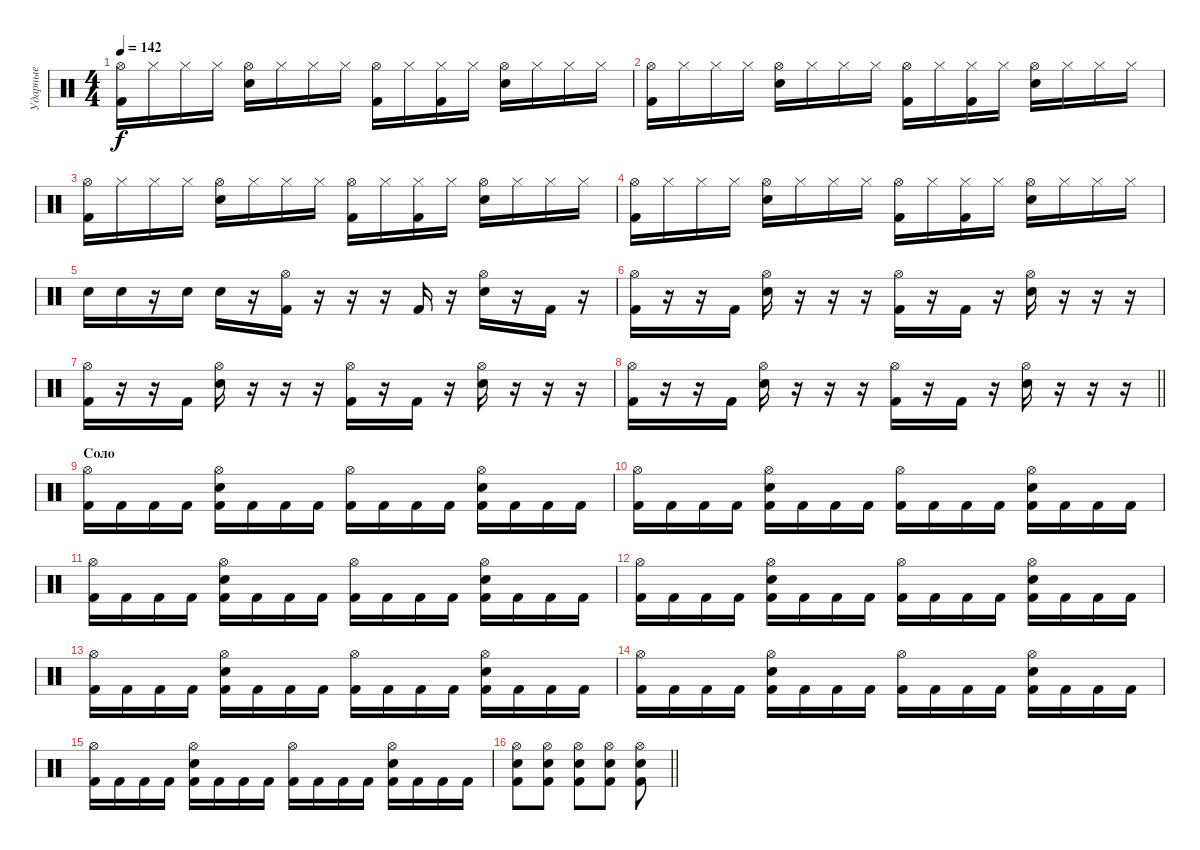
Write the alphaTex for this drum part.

\track ("Ударные" "Ударные") {instrument percussion}
\staff {score}
\articulation defaults
\ts (4 4)
\tempo 142
\clef neutral
\ks c
("Hi-Hat (open)" "Kick (hit) 2").16{dy f} "Hi-Hat (closed)".16 "Hi-Hat (closed)".16 "Hi-Hat (closed)".16 ("Hi-Hat (open)" "Electric Snare (hit)").16 "Hi-Hat (closed)".16 "Hi-Hat (closed)".16 "Hi-Hat (closed)".16 ("Hi-Hat (open)" "Kick (hit) 2").16 "Hi-Hat (closed)".16 ("Hi-Hat (closed)" "Kick (hit) 2").16 "Hi-Hat (closed)".16 ("Hi-Hat (open)" "Electric Snare (hit)").16 "Hi-Hat (closed)".16 "Hi-Hat (closed)".16 "Hi-Hat (closed)".16 |
("Hi-Hat (open)" "Kick (hit) 2").16 "Hi-Hat (closed)".16 "Hi-Hat (closed)".16 "Hi-Hat (closed)".16 ("Hi-Hat (open)" "Electric Snare (hit)").16 "Hi-Hat (closed)".16 "Hi-Hat (closed)".16 "Hi-Hat (closed)".16 ("Hi-Hat (open)" "Kick (hit) 2").16 "Hi-Hat (closed)".16 ("Hi-Hat (closed)" "Kick (hit) 2").16 "Hi-Hat (closed)".16 ("Hi-Hat (open)" "Electric Snare (hit)").16 "Hi-Hat (closed)".16 "Hi-Hat (closed)".16 "Hi-Hat (closed)".16 |
("Hi-Hat (open)" "Kick (hit) 2").16 "Hi-Hat (closed)".16 "Hi-Hat (closed)".16 "Hi-Hat (closed)".16 ("Hi-Hat (open)" "Electric Snare (hit)").16 "Hi-Hat (closed)".16 "Hi-Hat (closed)".16 "Hi-Hat (closed)".16 ("Hi-Hat (open)" "Kick (hit) 2").16 "Hi-Hat (closed)".16 ("Hi-Hat (closed)" "Kick (hit) 2").16 "Hi-Hat (closed)".16 ("Hi-Hat (open)" "Electric Snare (hit)").16 "Hi-Hat (closed)".16 "Hi-Hat (closed)".16 "Hi-Hat (closed)".16 |
("Hi-Hat (open)" "Kick (hit) 2").16 "Hi-Hat (closed)".16 "Hi-Hat (closed)".16 "Hi-Hat (closed)".16 ("Hi-Hat (open)" "Electric Snare (hit)").16 "Hi-Hat (closed)".16 "Hi-Hat (closed)".16 "Hi-Hat (closed)".16 ("Hi-Hat (open)" "Kick (hit) 2").16 "Hi-Hat (closed)".16 ("Hi-Hat (closed)" "Kick (hit) 2").16 "Hi-Hat (closed)".16 ("Hi-Hat (open)" "Electric Snare (hit)").16 "Hi-Hat (closed)".16 "Hi-Hat (closed)".16 "Hi-Hat (closed)".16 |
"Electric Snare (hit)".16 "Electric Snare (hit)".16 r.16 "Electric Snare (hit)".16 "Electric Snare (hit)".16 r.16 ("Hi-Hat (open)" "Kick (hit) 2").16 r.16 r.16 r.16 "Kick (hit) 2".16 r.16 ("Hi-Hat (open)" "Electric Snare (hit)").16 r.16 "Kick (hit) 2".16 r.16 |
("Hi-Hat (open)" "Kick (hit) 2").16 r.16 r.16 "Kick (hit) 2".16 ("Hi-Hat (open)" "Electric Snare (hit)").16 r.16 r.16 r.16 ("Hi-Hat (open)" "Kick (hit) 2").16 r.16 "Kick (hit) 2".16 r.16 ("Hi-Hat (open)" "Electric Snare (hit)").16 r.16 r.16 r.16 |
("Hi-Hat (open)" "Kick (hit) 2").16 r.16 r.16 "Kick (hit) 2".16 ("Hi-Hat (open)" "Electric Snare (hit)").16 r.16 r.16 r.16 ("Hi-Hat (open)" "Kick (hit) 2").16 r.16 "Kick (hit) 2".16 r.16 ("Hi-Hat (open)" "Electric Snare (hit)").16 r.16 r.16 r.16 |
\barLineRight lightlight
("Hi-Hat (open)" "Kick (hit) 2").16 r.16 r.16 "Kick (hit) 2".16 ("Hi-Hat (open)" "Electric Snare (hit)").16 r.16 r.16 r.16 ("Hi-Hat (open)" "Kick (hit) 2").16 r.16 "Kick (hit) 2".16 r.16 ("Hi-Hat (open)" "Electric Snare (hit)").16 r.16 r.16 r.16 |
\section ("" "Соло")
("Hi-Hat (open)" "Kick (hit) 2").16 "Kick (hit) 2".16 "Kick (hit) 2".16 "Kick (hit) 2".16 ("Hi-Hat (open)" "Electric Snare (hit)" "Kick (hit) 2").16 "Kick (hit) 2".16 "Kick (hit) 2".16 "Kick (hit) 2".16 ("Hi-Hat (open)" "Kick (hit) 2").16 "Kick (hit) 2".16 "Kick (hit) 2".16 "Kick (hit) 2".16 ("Hi-Hat (open)" "Electric Snare (hit)" "Kick (hit) 2").16 "Kick (hit) 2".16 "Kick (hit) 2".16 "Kick (hit) 2".16 |
("Hi-Hat (open)" "Kick (hit) 2").16 "Kick (hit) 2".16 "Kick (hit) 2".16 "Kick (hit) 2".16 ("Hi-Hat (open)" "Electric Snare (hit)" "Kick (hit) 2").16 "Kick (hit) 2".16 "Kick (hit) 2".16 "Kick (hit) 2".16 ("Hi-Hat (open)" "Kick (hit) 2").16 "Kick (hit) 2".16 "Kick (hit) 2".16 "Kick (hit) 2".16 ("Hi-Hat (open)" "Electric Snare (hit)" "Kick (hit) 2").16 "Kick (hit) 2".16 "Kick (hit) 2".16 "Kick (hit) 2".16 |
("Hi-Hat (open)" "Kick (hit) 2").16 "Kick (hit) 2".16 "Kick (hit) 2".16 "Kick (hit) 2".16 ("Hi-Hat (open)" "Electric Snare (hit)" "Kick (hit) 2").16 "Kick (hit) 2".16 "Kick (hit) 2".16 "Kick (hit) 2".16 ("Hi-Hat (open)" "Kick (hit) 2").16 "Kick (hit) 2".16 "Kick (hit) 2".16 "Kick (hit) 2".16 ("Hi-Hat (open)" "Electric Snare (hit)" "Kick (hit) 2").16 "Kick (hit) 2".16 "Kick (hit) 2".16 "Kick (hit) 2".16 |
("Hi-Hat (open)" "Kick (hit) 2").16 "Kick (hit) 2".16 "Kick (hit) 2".16 "Kick (hit) 2".16 ("Hi-Hat (open)" "Electric Snare (hit)" "Kick (hit) 2").16 "Kick (hit) 2".16 "Kick (hit) 2".16 "Kick (hit) 2".16 ("Hi-Hat (open)" "Kick (hit) 2").16 "Kick (hit) 2".16 "Kick (hit) 2".16 "Kick (hit) 2".16 ("Hi-Hat (open)" "Electric Snare (hit)" "Kick (hit) 2").16 "Kick (hit) 2".16 "Kick (hit) 2".16 "Kick (hit) 2".16 |
("Hi-Hat (open)" "Kick (hit) 2").16 "Kick (hit) 2".16 "Kick (hit) 2".16 "Kick (hit) 2".16 ("Hi-Hat (open)" "Electric Snare (hit)" "Kick (hit) 2").16 "Kick (hit) 2".16 "Kick (hit) 2".16 "Kick (hit) 2".16 ("Hi-Hat (open)" "Kick (hit) 2").16 "Kick (hit) 2".16 "Kick (hit) 2".16 "Kick (hit) 2".16 ("Hi-Hat (open)" "Electric Snare (hit)" "Kick (hit) 2").16 "Kick (hit) 2".16 "Kick (hit) 2".16 "Kick (hit) 2".16 |
("Hi-Hat (open)" "Kick (hit) 2").16 "Kick (hit) 2".16 "Kick (hit) 2".16 "Kick (hit) 2".16 ("Hi-Hat (open)" "Electric Snare (hit)" "Kick (hit) 2").16 "Kick (hit) 2".16 "Kick (hit) 2".16 "Kick (hit) 2".16 ("Hi-Hat (open)" "Kick (hit) 2").16 "Kick (hit) 2".16 "Kick (hit) 2".16 "Kick (hit) 2".16 ("Hi-Hat (open)" "Electric Snare (hit)" "Kick (hit) 2").16 "Kick (hit) 2".16 "Kick (hit) 2".16 "Kick (hit) 2".16 |
("Hi-Hat (open)" "Kick (hit) 2").16 "Kick (hit) 2".16 "Kick (hit) 2".16 "Kick (hit) 2".16 ("Hi-Hat (open)" "Electric Snare (hit)" "Kick (hit) 2").16 "Kick (hit) 2".16 "Kick (hit) 2".16 "Kick (hit) 2".16 ("Hi-Hat (open)" "Kick (hit) 2").16 "Kick (hit) 2".16 "Kick (hit) 2".16 "Kick (hit) 2".16 ("Hi-Hat (open)" "Electric Snare (hit)" "Kick (hit) 2").16 "Kick (hit) 2".16 "Kick (hit) 2".16 "Kick (hit) 2".16 |
\barLineRight lightlight
("Hi-Hat (open)" "Electric Snare (hit)" "Kick (hit) 2").8 ("Hi-Hat (open)" "Electric Snare (hit)" "Kick (hit) 2").8 ("Hi-Hat (open)" "Electric Snare (hit)" "Kick (hit) 2").8 ("Hi-Hat (open)" "Electric Snare (hit)" "Kick (hit) 2").8 ("Hi-Hat (open)" "Electric Snare (hit)" "Kick (hit) 2").8
